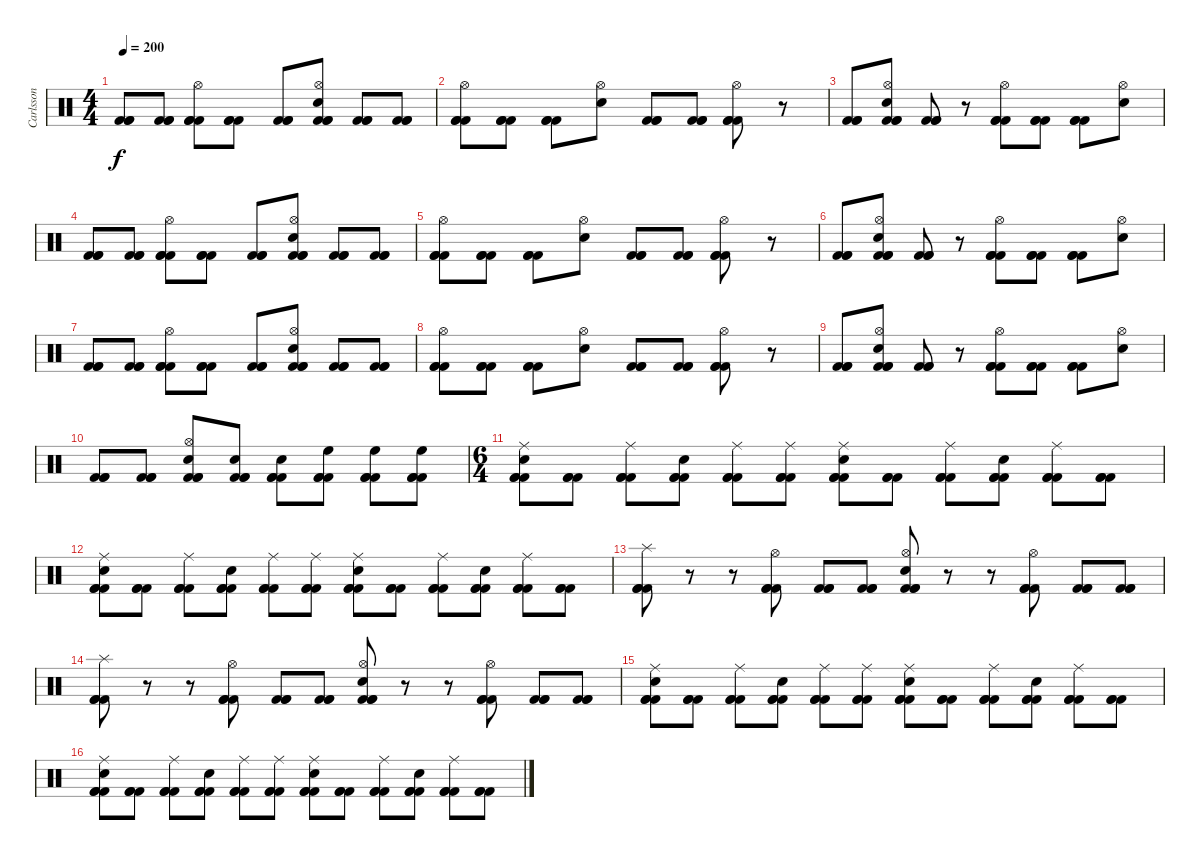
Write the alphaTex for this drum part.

\track ("Carlsson" "Carlsson") {instrument percussion}
\staff {score}
\articulation defaults
\ts (4 4)
\tempo 200
\clef neutral
\ks c
("Kick (hit) 2" "Kick (hit) 2" "Kick (hit) 2").8{dy f} ("Kick (hit) 2" "Kick (hit) 2" "Kick (hit) 2").8 ("Hi-Hat (open)" "Kick (hit) 2" "Kick (hit) 2" "Kick (hit) 2").8 ("Kick (hit) 2" "Kick (hit) 2" "Kick (hit) 2").8 ("Kick (hit) 2" "Kick (hit) 2" "Kick (hit) 2").8 ("Hi-Hat (open)" "Snare (hit) 2" "Kick (hit) 2" "Kick (hit) 2" "Kick (hit) 2").8 ("Kick (hit) 2" "Kick (hit) 2" "Kick (hit) 2").8 ("Kick (hit) 2" "Kick (hit) 2" "Kick (hit) 2").8 |
("Hi-Hat (open)" "Kick (hit) 2" "Kick (hit) 2" "Kick (hit) 2").8 ("Kick (hit) 2" "Kick (hit) 2" "Kick (hit) 2").8 ("Kick (hit) 2" "Kick (hit) 2" "Kick (hit) 2").8 ("Hi-Hat (open)" "Snare (hit) 2").8 ("Kick (hit) 2" "Kick (hit) 2" "Kick (hit) 2").8 ("Kick (hit) 2" "Kick (hit) 2" "Kick (hit) 2").8 ("Hi-Hat (open)" "Kick (hit) 2" "Kick (hit) 2" "Kick (hit) 2").8 r.8 |
("Kick (hit) 2" "Kick (hit) 2" "Kick (hit) 2").8 ("Hi-Hat (open)" "Snare (hit) 2" "Kick (hit) 2" "Kick (hit) 2" "Kick (hit) 2").8 ("Kick (hit) 2" "Kick (hit) 2" "Kick (hit) 2").8 r.8 ("Hi-Hat (open)" "Kick (hit) 2" "Kick (hit) 2" "Kick (hit) 2").8 ("Kick (hit) 2" "Kick (hit) 2" "Kick (hit) 2").8 ("Kick (hit) 2" "Kick (hit) 2" "Kick (hit) 2").8 ("Hi-Hat (open)" "Snare (hit) 2").8 |
("Kick (hit) 2" "Kick (hit) 2" "Kick (hit) 2").8 ("Kick (hit) 2" "Kick (hit) 2" "Kick (hit) 2").8 ("Hi-Hat (open)" "Kick (hit) 2" "Kick (hit) 2" "Kick (hit) 2").8 ("Kick (hit) 2" "Kick (hit) 2" "Kick (hit) 2").8 ("Kick (hit) 2" "Kick (hit) 2" "Kick (hit) 2").8 ("Hi-Hat (open)" "Snare (hit) 2" "Kick (hit) 2" "Kick (hit) 2" "Kick (hit) 2").8 ("Kick (hit) 2" "Kick (hit) 2" "Kick (hit) 2").8 ("Kick (hit) 2" "Kick (hit) 2" "Kick (hit) 2").8 |
("Hi-Hat (open)" "Kick (hit) 2" "Kick (hit) 2" "Kick (hit) 2").8 ("Kick (hit) 2" "Kick (hit) 2" "Kick (hit) 2").8 ("Kick (hit) 2" "Kick (hit) 2" "Kick (hit) 2").8 ("Hi-Hat (open)" "Snare (hit) 2").8 ("Kick (hit) 2" "Kick (hit) 2" "Kick (hit) 2").8 ("Kick (hit) 2" "Kick (hit) 2" "Kick (hit) 2").8 ("Hi-Hat (open)" "Kick (hit) 2" "Kick (hit) 2" "Kick (hit) 2").8 r.8 |
("Kick (hit) 2" "Kick (hit) 2" "Kick (hit) 2").8 ("Hi-Hat (open)" "Snare (hit) 2" "Kick (hit) 2" "Kick (hit) 2" "Kick (hit) 2").8 ("Kick (hit) 2" "Kick (hit) 2" "Kick (hit) 2").8 r.8 ("Hi-Hat (open)" "Kick (hit) 2" "Kick (hit) 2" "Kick (hit) 2").8 ("Kick (hit) 2" "Kick (hit) 2" "Kick (hit) 2").8 ("Kick (hit) 2" "Kick (hit) 2" "Kick (hit) 2").8 ("Hi-Hat (open)" "Snare (hit) 2").8 |
("Kick (hit) 2" "Kick (hit) 2" "Kick (hit) 2").8 ("Kick (hit) 2" "Kick (hit) 2" "Kick (hit) 2").8 ("Hi-Hat (open)" "Kick (hit) 2" "Kick (hit) 2" "Kick (hit) 2").8 ("Kick (hit) 2" "Kick (hit) 2" "Kick (hit) 2").8 ("Kick (hit) 2" "Kick (hit) 2" "Kick (hit) 2").8 ("Hi-Hat (open)" "Snare (hit) 2" "Kick (hit) 2" "Kick (hit) 2" "Kick (hit) 2").8 ("Kick (hit) 2" "Kick (hit) 2" "Kick (hit) 2").8 ("Kick (hit) 2" "Kick (hit) 2" "Kick (hit) 2").8 |
("Hi-Hat (open)" "Kick (hit) 2" "Kick (hit) 2" "Kick (hit) 2").8 ("Kick (hit) 2" "Kick (hit) 2" "Kick (hit) 2").8 ("Kick (hit) 2" "Kick (hit) 2" "Kick (hit) 2").8 ("Hi-Hat (open)" "Snare (hit) 2").8 ("Kick (hit) 2" "Kick (hit) 2" "Kick (hit) 2").8 ("Kick (hit) 2" "Kick (hit) 2" "Kick (hit) 2").8 ("Hi-Hat (open)" "Kick (hit) 2" "Kick (hit) 2" "Kick (hit) 2").8 r.8 |
("Kick (hit) 2" "Kick (hit) 2" "Kick (hit) 2").8 ("Hi-Hat (open)" "Snare (hit) 2" "Kick (hit) 2" "Kick (hit) 2" "Kick (hit) 2").8 ("Kick (hit) 2" "Kick (hit) 2" "Kick (hit) 2").8 r.8 ("Hi-Hat (open)" "Kick (hit) 2" "Kick (hit) 2" "Kick (hit) 2").8 ("Kick (hit) 2" "Kick (hit) 2" "Kick (hit) 2").8 ("Kick (hit) 2" "Kick (hit) 2" "Kick (hit) 2").8 ("Hi-Hat (open)" "Snare (hit) 2").8 |
("Kick (hit) 2" "Kick (hit) 2" "Kick (hit) 2").8 ("Kick (hit) 2" "Kick (hit) 2" "Kick (hit) 2").8 ("Hi-Hat (open)" "Snare (hit) 2" "Kick (hit) 2" "Kick (hit) 2" "Kick (hit) 2").8 ("Snare (hit) 2" "Kick (hit) 2" "Kick (hit) 2" "Kick (hit) 2").8 ("Snare (hit) 2" "Kick (hit) 2" "Kick (hit) 2" "Kick (hit) 2").8 ("High Floor Tom (hit)" "Kick (hit) 2" "Kick (hit) 2" "Kick (hit) 2").8 ("High Floor Tom (hit)" "Kick (hit) 2" "Kick (hit) 2" "Kick (hit) 2").8 ("High Floor Tom (hit)" "Kick (hit) 2" "Kick (hit) 2" "Kick (hit) 2").8 |
\ts (6 4)
("Ride (middle)" "Snare (hit) 2" "Kick (hit) 2" "Kick (hit) 2" "Kick (hit) 2").8 ("Kick (hit) 2" "Kick (hit) 2" "Kick (hit) 2").8 ("Ride (middle)" "Kick (hit) 2" "Kick (hit) 2" "Kick (hit) 2").8 ("Snare (hit) 2" "Kick (hit) 2" "Kick (hit) 2" "Kick (hit) 2").8 ("Ride (middle)" "Kick (hit) 2" "Kick (hit) 2" "Kick (hit) 2").8 ("Ride (middle)" "Kick (hit) 2" "Kick (hit) 2" "Kick (hit) 2").8 ("Ride (middle)" "Snare (hit) 2" "Kick (hit) 2" "Kick (hit) 2" "Kick (hit) 2").8 ("Kick (hit) 2" "Kick (hit) 2" "Kick (hit) 2").8 ("Ride (middle)" "Kick (hit) 2" "Kick (hit) 2" "Kick (hit) 2").8 ("Snare (hit) 2" "Kick (hit) 2" "Kick (hit) 2" "Kick (hit) 2").8 ("Ride (middle)" "Kick (hit) 2" "Kick (hit) 2" "Kick (hit) 2").8 ("Kick (hit) 2" "Kick (hit) 2" "Kick (hit) 2").8 |
("Ride (middle)" "Snare (hit) 2" "Kick (hit) 2" "Kick (hit) 2" "Kick (hit) 2").8 ("Kick (hit) 2" "Kick (hit) 2" "Kick (hit) 2").8 ("Ride (middle)" "Kick (hit) 2" "Kick (hit) 2" "Kick (hit) 2").8 ("Snare (hit) 2" "Kick (hit) 2" "Kick (hit) 2" "Kick (hit) 2").8 ("Ride (middle)" "Kick (hit) 2" "Kick (hit) 2" "Kick (hit) 2").8 ("Ride (middle)" "Kick (hit) 2" "Kick (hit) 2" "Kick (hit) 2").8 ("Ride (middle)" "Snare (hit) 2" "Kick (hit) 2" "Kick (hit) 2" "Kick (hit) 2").8 ("Kick (hit) 2" "Kick (hit) 2" "Kick (hit) 2").8 ("Ride (middle)" "Kick (hit) 2" "Kick (hit) 2" "Kick (hit) 2").8 ("Snare (hit) 2" "Kick (hit) 2" "Kick (hit) 2" "Kick (hit) 2").8 ("Ride (middle)" "Kick (hit) 2" "Kick (hit) 2" "Kick (hit) 2").8 ("Kick (hit) 2" "Kick (hit) 2" "Kick (hit) 2").8 |
("Splash (hit)" "Kick (hit) 2" "Kick (hit) 2" "Kick (hit) 2").8 r.8 r.8 ("Hi-Hat (open)" "Kick (hit) 2" "Kick (hit) 2" "Kick (hit) 2").8 ("Kick (hit) 2" "Kick (hit) 2" "Kick (hit) 2").8 ("Kick (hit) 2" "Kick (hit) 2" "Kick (hit) 2").8 ("Hi-Hat (open)" "Snare (hit) 2" "Kick (hit) 2" "Kick (hit) 2" "Kick (hit) 2").8 r.8 r.8 ("Hi-Hat (open)" "Kick (hit) 2" "Kick (hit) 2" "Kick (hit) 2").8 ("Kick (hit) 2" "Kick (hit) 2" "Kick (hit) 2").8 ("Kick (hit) 2" "Kick (hit) 2" "Kick (hit) 2").8 |
("Splash (hit)" "Kick (hit) 2" "Kick (hit) 2" "Kick (hit) 2").8 r.8 r.8 ("Hi-Hat (open)" "Kick (hit) 2" "Kick (hit) 2" "Kick (hit) 2").8 ("Kick (hit) 2" "Kick (hit) 2" "Kick (hit) 2").8 ("Kick (hit) 2" "Kick (hit) 2" "Kick (hit) 2").8 ("Hi-Hat (open)" "Snare (hit) 2" "Kick (hit) 2" "Kick (hit) 2" "Kick (hit) 2").8 r.8 r.8 ("Hi-Hat (open)" "Kick (hit) 2" "Kick (hit) 2" "Kick (hit) 2").8 ("Kick (hit) 2" "Kick (hit) 2" "Kick (hit) 2").8 ("Kick (hit) 2" "Kick (hit) 2" "Kick (hit) 2").8 |
("Ride (middle)" "Snare (hit) 2" "Kick (hit) 2" "Kick (hit) 2" "Kick (hit) 2").8 ("Kick (hit) 2" "Kick (hit) 2" "Kick (hit) 2").8 ("Ride (middle)" "Kick (hit) 2" "Kick (hit) 2" "Kick (hit) 2").8 ("Snare (hit) 2" "Kick (hit) 2" "Kick (hit) 2" "Kick (hit) 2").8 ("Ride (middle)" "Kick (hit) 2" "Kick (hit) 2" "Kick (hit) 2").8 ("Ride (middle)" "Kick (hit) 2" "Kick (hit) 2" "Kick (hit) 2").8 ("Ride (middle)" "Snare (hit) 2" "Kick (hit) 2" "Kick (hit) 2" "Kick (hit) 2").8 ("Kick (hit) 2" "Kick (hit) 2" "Kick (hit) 2").8 ("Ride (middle)" "Kick (hit) 2" "Kick (hit) 2" "Kick (hit) 2").8 ("Snare (hit) 2" "Kick (hit) 2" "Kick (hit) 2" "Kick (hit) 2").8 ("Ride (middle)" "Kick (hit) 2" "Kick (hit) 2" "Kick (hit) 2").8 ("Kick (hit) 2" "Kick (hit) 2" "Kick (hit) 2").8 |
("Ride (middle)" "Snare (hit) 2" "Kick (hit) 2" "Kick (hit) 2" "Kick (hit) 2").8 ("Kick (hit) 2" "Kick (hit) 2" "Kick (hit) 2").8 ("Ride (middle)" "Kick (hit) 2" "Kick (hit) 2" "Kick (hit) 2").8 ("Snare (hit) 2" "Kick (hit) 2" "Kick (hit) 2" "Kick (hit) 2").8 ("Ride (middle)" "Kick (hit) 2" "Kick (hit) 2" "Kick (hit) 2").8 ("Ride (middle)" "Kick (hit) 2" "Kick (hit) 2" "Kick (hit) 2").8 ("Ride (middle)" "Snare (hit) 2" "Kick (hit) 2" "Kick (hit) 2" "Kick (hit) 2").8 ("Kick (hit) 2" "Kick (hit) 2" "Kick (hit) 2").8 ("Ride (middle)" "Kick (hit) 2" "Kick (hit) 2" "Kick (hit) 2").8 ("Snare (hit) 2" "Kick (hit) 2" "Kick (hit) 2" "Kick (hit) 2").8 ("Ride (middle)" "Kick (hit) 2" "Kick (hit) 2" "Kick (hit) 2").8 ("Kick (hit) 2" "Kick (hit) 2" "Kick (hit) 2").8
